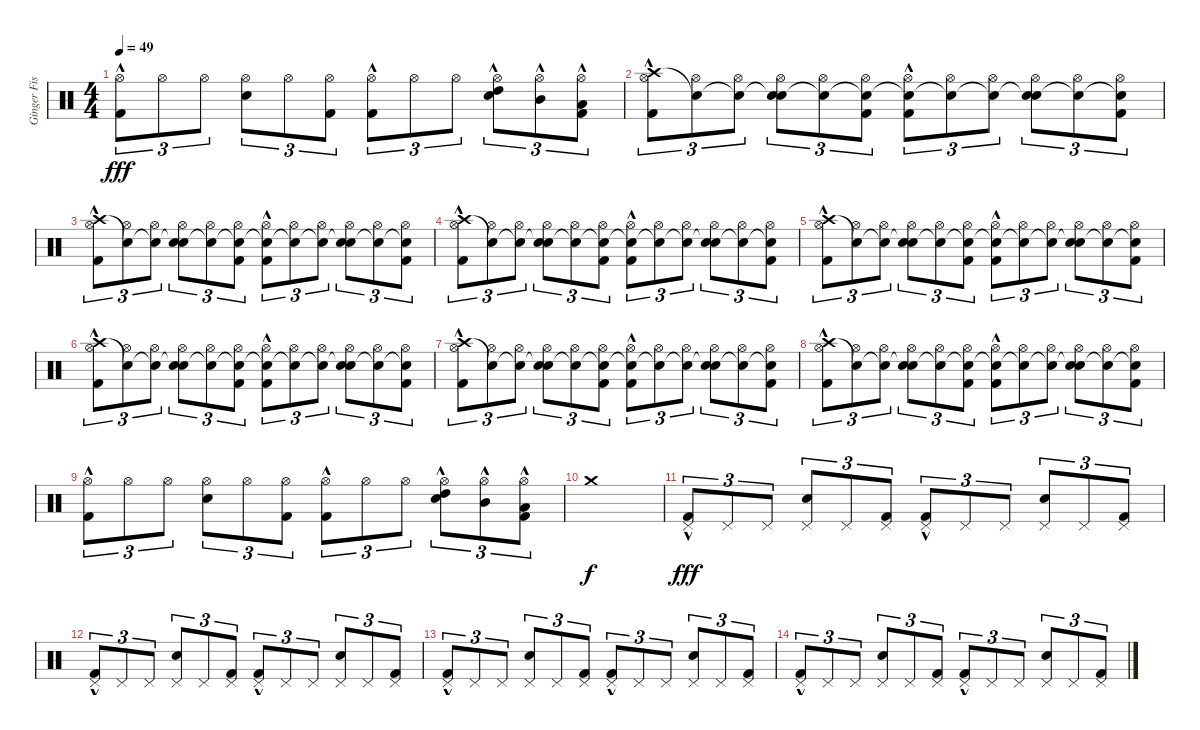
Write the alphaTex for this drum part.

\track ("Ginger Fish" "Ginger Fis") {instrument percussion}
\staff {score}
\articulation defaults
\ts (4 4)
\tempo 49
\clef neutral
\ks c
("Hi-Hat (open)" "Kick (hit) 2"{hac}).8{tu (3 2) dy fff} "Hi-Hat (open)".8{tu (3 2)} "Hi-Hat (open)".8{tu (3 2)} ("Snare (hit) 2" "Hi-Hat (open)").8{tu (3 2)} "Hi-Hat (open)".8{tu (3 2)} ("Hi-Hat (open)" "Kick (hit) 2").8{tu (3 2)} ("Hi-Hat (open)" "Kick (hit) 2"{hac}).8{tu (3 2)} "Hi-Hat (open)".8{tu (3 2)} "Hi-Hat (open)".8{tu (3 2)} ("High Tom (hit)"{hac} "Snare (hit) 2"{hac} "Hi-Hat (open)"{hac}).8{tu (3 2)} ("Mid Tom (hit)"{hac} "Hi-Hat (open)").8{tu (3 2)} ("Low Tom (hit)"{hac} "Hi-Hat (open)" "Kick (hit) 2").8{tu (3 2)} |
("Crash high (hit)"{hac} "Hi-Hat (open)" "Kick (hit) 2").8{tu (3 2)} ("Snare (hit)"{t} "Hi-Hat (open)").8{tu (3 2)} ("Snare (hit)"{t} "Hi-Hat (open)").8{tu (3 2)} ("Snare (hit)"{t} "Snare (hit) 2" "Hi-Hat (open)").8{tu (3 2)} ("Snare (hit)"{t} "Hi-Hat (open)").8{tu (3 2)} ("Snare (hit)"{t} "Hi-Hat (open)" "Kick (hit) 2").8{tu (3 2)} ("Snare (hit)"{t} "Hi-Hat (open)" "Kick (hit) 2"{hac}).8{tu (3 2)} ("Snare (hit)"{t} "Hi-Hat (open)").8{tu (3 2)} ("Snare (hit)"{t} "Hi-Hat (open)").8{tu (3 2)} ("Snare (hit)"{t} "Snare (hit) 2" "Hi-Hat (open)").8{tu (3 2)} ("Snare (hit)"{t} "Hi-Hat (open)").8{tu (3 2)} ("Snare (hit)"{t} "Hi-Hat (open)" "Kick (hit) 2").8{tu (3 2)} |
("Crash high (hit)"{hac} "Hi-Hat (open)" "Kick (hit) 2").8{tu (3 2)} ("Snare (hit)"{t} "Hi-Hat (open)").8{tu (3 2)} ("Snare (hit)"{t} "Hi-Hat (open)").8{tu (3 2)} ("Snare (hit)"{t} "Snare (hit) 2" "Hi-Hat (open)").8{tu (3 2)} ("Snare (hit)"{t} "Hi-Hat (open)").8{tu (3 2)} ("Snare (hit)"{t} "Hi-Hat (open)" "Kick (hit) 2").8{tu (3 2)} ("Snare (hit)"{t} "Hi-Hat (open)" "Kick (hit) 2"{hac}).8{tu (3 2)} ("Snare (hit)"{t} "Hi-Hat (open)").8{tu (3 2)} ("Snare (hit)"{t} "Hi-Hat (open)").8{tu (3 2)} ("Snare (hit)"{t} "Snare (hit) 2" "Hi-Hat (open)").8{tu (3 2)} ("Snare (hit)"{t} "Hi-Hat (open)").8{tu (3 2)} ("Snare (hit)"{t} "Hi-Hat (open)" "Kick (hit) 2").8{tu (3 2)} |
("Crash high (hit)"{hac} "Hi-Hat (open)" "Kick (hit) 2").8{tu (3 2)} ("Snare (hit)"{t} "Hi-Hat (open)").8{tu (3 2)} ("Snare (hit)"{t} "Hi-Hat (open)").8{tu (3 2)} ("Snare (hit)"{t} "Snare (hit) 2" "Hi-Hat (open)").8{tu (3 2)} ("Snare (hit)"{t} "Hi-Hat (open)").8{tu (3 2)} ("Snare (hit)"{t} "Hi-Hat (open)" "Kick (hit) 2").8{tu (3 2)} ("Snare (hit)"{t} "Hi-Hat (open)" "Kick (hit) 2"{hac}).8{tu (3 2)} ("Snare (hit)"{t} "Hi-Hat (open)").8{tu (3 2)} ("Snare (hit)"{t} "Hi-Hat (open)").8{tu (3 2)} ("Snare (hit)"{t} "Snare (hit) 2" "Hi-Hat (open)").8{tu (3 2)} ("Snare (hit)"{t} "Hi-Hat (open)").8{tu (3 2)} ("Snare (hit)"{t} "Hi-Hat (open)" "Kick (hit) 2").8{tu (3 2)} |
("Crash high (hit)"{hac} "Hi-Hat (open)" "Kick (hit) 2").8{tu (3 2)} ("Snare (hit)"{t} "Hi-Hat (open)").8{tu (3 2)} ("Snare (hit)"{t} "Hi-Hat (open)").8{tu (3 2)} ("Snare (hit)"{t} "Snare (hit) 2" "Hi-Hat (open)").8{tu (3 2)} ("Snare (hit)"{t} "Hi-Hat (open)").8{tu (3 2)} ("Snare (hit)"{t} "Hi-Hat (open)" "Kick (hit) 2").8{tu (3 2)} ("Snare (hit)"{t} "Hi-Hat (open)" "Kick (hit) 2"{hac}).8{tu (3 2)} ("Snare (hit)"{t} "Hi-Hat (open)").8{tu (3 2)} ("Snare (hit)"{t} "Hi-Hat (open)").8{tu (3 2)} ("Snare (hit)"{t} "Snare (hit) 2" "Hi-Hat (open)").8{tu (3 2)} ("Snare (hit)"{t} "Hi-Hat (open)").8{tu (3 2)} ("Snare (hit)"{t} "Hi-Hat (open)" "Kick (hit) 2").8{tu (3 2)} |
("Crash high (hit)"{hac} "Hi-Hat (open)" "Kick (hit) 2").8{tu (3 2)} ("Snare (hit)"{t} "Hi-Hat (open)").8{tu (3 2)} ("Snare (hit)"{t} "Hi-Hat (open)").8{tu (3 2)} ("Snare (hit)"{t} "Snare (hit) 2" "Hi-Hat (open)").8{tu (3 2)} ("Snare (hit)"{t} "Hi-Hat (open)").8{tu (3 2)} ("Snare (hit)"{t} "Hi-Hat (open)" "Kick (hit) 2").8{tu (3 2)} ("Snare (hit)"{t} "Hi-Hat (open)" "Kick (hit) 2"{hac}).8{tu (3 2)} ("Snare (hit)"{t} "Hi-Hat (open)").8{tu (3 2)} ("Snare (hit)"{t} "Hi-Hat (open)").8{tu (3 2)} ("Snare (hit)"{t} "Snare (hit) 2" "Hi-Hat (open)").8{tu (3 2)} ("Snare (hit)"{t} "Hi-Hat (open)").8{tu (3 2)} ("Snare (hit)"{t} "Hi-Hat (open)" "Kick (hit) 2").8{tu (3 2)} |
("Crash high (hit)"{hac} "Hi-Hat (open)" "Kick (hit) 2").8{tu (3 2)} ("Snare (hit)"{t} "Hi-Hat (open)").8{tu (3 2)} ("Snare (hit)"{t} "Hi-Hat (open)").8{tu (3 2)} ("Snare (hit)"{t} "Snare (hit) 2" "Hi-Hat (open)").8{tu (3 2)} ("Snare (hit)"{t} "Hi-Hat (open)").8{tu (3 2)} ("Snare (hit)"{t} "Hi-Hat (open)" "Kick (hit) 2").8{tu (3 2)} ("Snare (hit)"{t} "Hi-Hat (open)" "Kick (hit) 2"{hac}).8{tu (3 2)} ("Snare (hit)"{t} "Hi-Hat (open)").8{tu (3 2)} ("Snare (hit)"{t} "Hi-Hat (open)").8{tu (3 2)} ("Snare (hit)"{t} "Snare (hit) 2" "Hi-Hat (open)").8{tu (3 2)} ("Snare (hit)"{t} "Hi-Hat (open)").8{tu (3 2)} ("Snare (hit)"{t} "Hi-Hat (open)" "Kick (hit) 2").8{tu (3 2)} |
("Crash high (hit)"{hac} "Hi-Hat (open)" "Kick (hit) 2").8{tu (3 2)} ("Snare (hit)"{t} "Hi-Hat (open)").8{tu (3 2)} ("Snare (hit)"{t} "Hi-Hat (open)").8{tu (3 2)} ("Snare (hit)"{t} "Snare (hit) 2" "Hi-Hat (open)").8{tu (3 2)} ("Snare (hit)"{t} "Hi-Hat (open)").8{tu (3 2)} ("Snare (hit)"{t} "Hi-Hat (open)" "Kick (hit) 2").8{tu (3 2)} ("Snare (hit)"{t} "Hi-Hat (open)" "Kick (hit) 2"{hac}).8{tu (3 2)} ("Snare (hit)"{t} "Hi-Hat (open)").8{tu (3 2)} ("Snare (hit)"{t} "Hi-Hat (open)").8{tu (3 2)} ("Snare (hit)"{t} "Snare (hit) 2" "Hi-Hat (open)").8{tu (3 2)} ("Snare (hit)"{t} "Hi-Hat (open)").8{tu (3 2)} ("Snare (hit)"{t} "Hi-Hat (open)" "Kick (hit) 2").8{tu (3 2)} |
("Hi-Hat (open)" "Kick (hit) 2"{hac}).8{tu (3 2)} "Hi-Hat (open)".8{tu (3 2)} "Hi-Hat (open)".8{tu (3 2)} ("Snare (hit) 2" "Hi-Hat (open)").8{tu (3 2)} "Hi-Hat (open)".8{tu (3 2)} ("Hi-Hat (open)" "Kick (hit) 2").8{tu (3 2)} ("Hi-Hat (open)" "Kick (hit) 2"{hac}).8{tu (3 2)} "Hi-Hat (open)".8{tu (3 2)} "Hi-Hat (open)".8{tu (3 2)} ("High Tom (hit)"{hac} "Snare (hit) 2"{hac} "Hi-Hat (open)"{hac}).8{tu (3 2)} ("Mid Tom (hit)"{hac} "Hi-Hat (open)").8{tu (3 2)} ("Low Tom (hit)"{hac} "Hi-Hat (open)" "Kick (hit) 2").8{tu (3 2)} |
"Crash medium (hit)".1{dy f} |
("Pedal Hi-Hat (hit)" "Kick (hit) 2"{hac}).8{tu (3 2) dy fff} "Pedal Hi-Hat (hit)".8{tu (3 2)} "Pedal Hi-Hat (hit)".8{tu (3 2)} ("Snare (hit) 2" "Pedal Hi-Hat (hit)").8{tu (3 2)} "Pedal Hi-Hat (hit)".8{tu (3 2)} ("Pedal Hi-Hat (hit)" "Kick (hit) 2").8{tu (3 2)} ("Pedal Hi-Hat (hit)" "Kick (hit) 2"{hac}).8{tu (3 2)} "Pedal Hi-Hat (hit)".8{tu (3 2)} "Pedal Hi-Hat (hit)".8{tu (3 2)} ("Snare (hit) 2" "Pedal Hi-Hat (hit)").8{tu (3 2)} "Pedal Hi-Hat (hit)".8{tu (3 2)} ("Pedal Hi-Hat (hit)" "Kick (hit) 2").8{tu (3 2)} |
("Pedal Hi-Hat (hit)" "Kick (hit) 2"{hac}).8{tu (3 2)} "Pedal Hi-Hat (hit)".8{tu (3 2)} "Pedal Hi-Hat (hit)".8{tu (3 2)} ("Snare (hit) 2" "Pedal Hi-Hat (hit)").8{tu (3 2)} "Pedal Hi-Hat (hit)".8{tu (3 2)} ("Pedal Hi-Hat (hit)" "Kick (hit) 2").8{tu (3 2)} ("Pedal Hi-Hat (hit)" "Kick (hit) 2"{hac}).8{tu (3 2)} "Pedal Hi-Hat (hit)".8{tu (3 2)} "Pedal Hi-Hat (hit)".8{tu (3 2)} ("Snare (hit) 2" "Pedal Hi-Hat (hit)").8{tu (3 2)} "Pedal Hi-Hat (hit)".8{tu (3 2)} ("Pedal Hi-Hat (hit)" "Kick (hit) 2").8{tu (3 2)} |
("Pedal Hi-Hat (hit)" "Kick (hit) 2"{hac}).8{tu (3 2)} "Pedal Hi-Hat (hit)".8{tu (3 2)} "Pedal Hi-Hat (hit)".8{tu (3 2)} ("Snare (hit) 2" "Pedal Hi-Hat (hit)").8{tu (3 2)} "Pedal Hi-Hat (hit)".8{tu (3 2)} ("Pedal Hi-Hat (hit)" "Kick (hit) 2").8{tu (3 2)} ("Pedal Hi-Hat (hit)" "Kick (hit) 2"{hac}).8{tu (3 2)} "Pedal Hi-Hat (hit)".8{tu (3 2)} "Pedal Hi-Hat (hit)".8{tu (3 2)} ("Snare (hit) 2" "Pedal Hi-Hat (hit)").8{tu (3 2)} "Pedal Hi-Hat (hit)".8{tu (3 2)} ("Pedal Hi-Hat (hit)" "Kick (hit) 2").8{tu (3 2)} |
("Pedal Hi-Hat (hit)" "Kick (hit) 2"{hac}).8{tu (3 2)} "Pedal Hi-Hat (hit)".8{tu (3 2)} "Pedal Hi-Hat (hit)".8{tu (3 2)} ("Snare (hit) 2" "Pedal Hi-Hat (hit)").8{tu (3 2)} "Pedal Hi-Hat (hit)".8{tu (3 2)} ("Pedal Hi-Hat (hit)" "Kick (hit) 2").8{tu (3 2)} ("Pedal Hi-Hat (hit)" "Kick (hit) 2"{hac}).8{tu (3 2)} "Pedal Hi-Hat (hit)".8{tu (3 2)} "Pedal Hi-Hat (hit)".8{tu (3 2)} ("Snare (hit) 2" "Pedal Hi-Hat (hit)").8{tu (3 2)} "Pedal Hi-Hat (hit)".8{tu (3 2)} ("Pedal Hi-Hat (hit)" "Kick (hit) 2").8{tu (3 2)}
